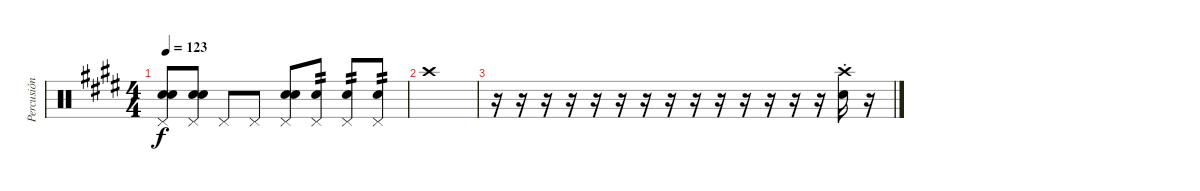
\track ("Percusión" "Percusión") {instrument percussion}
\staff {score}
\articulation defaults
\ts (4 4)
\tempo 123
\clef neutral
\ks c#minor
("Pedal Hi-Hat (hit)" "Snare (hit) 2" "Electric Snare (hit)").8{dy f} ("Pedal Hi-Hat (hit)" "Snare (hit) 2" "Electric Snare (hit)").8 "Pedal Hi-Hat (hit)".8 "Pedal Hi-Hat (hit)".8 ("Pedal Hi-Hat (hit)" "Snare (hit) 2" "Electric Snare (hit)").8 ("Pedal Hi-Hat (hit)" "Snare (hit) 2").8{tp 2} ("Pedal Hi-Hat (hit)" "Snare (hit) 2").8{tp 2} ("Pedal Hi-Hat (hit)" "Snare (hit) 2").8{tp 2} |
\ks e "Crash high (hit)".1
|
\ks c#minor
r.16 r.16 r.16 r.16 r.16 r.16 r.16 r.16 r.16 r.16 r.16 r.16 r.16 r.16 ("Crash high (hit)"{st} "Snare (hit) 2").16 r.16
